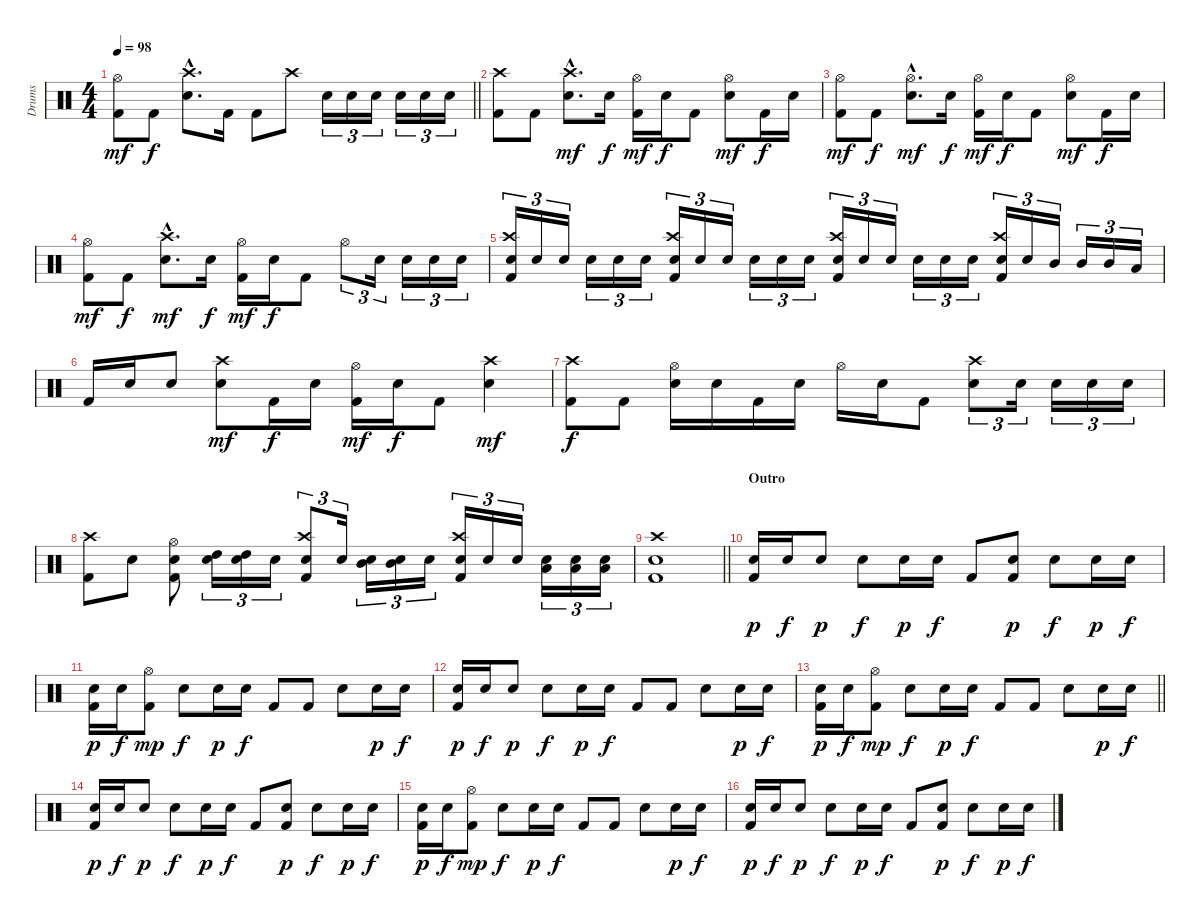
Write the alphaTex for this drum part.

\track ("Drums" "Drums") {instrument percussion}
\staff {score}
\articulation defaults
\ts (4 4)
\tempo 98
\clef neutral
\barLineRight lightlight
\ks c
("Hi-Hat (open)" "Kick (hit) 2").8{dy mf} "Kick (hit) 2".8{dy f} ("Crash high (hit)"{hac} "Snare (hit) 2"{hac}).8{d} "Kick (hit) 2".16 "Kick (hit) 2".8 "Crash high (hit)".8 "Snare (hit) 2".16{tu (3 2)} "Snare (hit) 2".16{tu (3 2)} "Snare (hit) 2".16{tu (3 2)} "Snare (hit) 2".16{tu (3 2)} "Snare (hit) 2".16{tu (3 2)} "Snare (hit) 2".16{tu (3 2)} |
("Crash high (hit)" "Kick (hit) 2").8 "Kick (hit) 2".8 ("Crash high (hit)"{hac} "Snare (hit) 2"{hac}).8{d dy mf} "Snare (hit) 2".16{dy f} ("Hi-Hat (open)" "Kick (hit) 2").16{dy mf} "Snare (hit) 2".16{dy f} "Kick (hit) 2".8 ("Hi-Hat (open)" "Snare (hit) 2").8{dy mf} "Kick (hit) 2".16{dy f} "Snare (hit) 2".16 |
("Hi-Hat (open)" "Kick (hit) 2").8{dy mf} "Kick (hit) 2".8{dy f} ("Hi-Hat (open)"{hac} "Snare (hit) 2"{hac}).8{d dy mf} "Snare (hit) 2".16{dy f} ("Hi-Hat (open)" "Kick (hit) 2").16{dy mf} "Snare (hit) 2".16{dy f} "Kick (hit) 2".8 ("Hi-Hat (open)" "Snare (hit) 2").8{dy mf} "Kick (hit) 2".16{dy f} "Snare (hit) 2".16 |
("Hi-Hat (open)" "Kick (hit) 2").8{dy mf} "Kick (hit) 2".8{dy f} ("Crash high (hit)"{hac} "Snare (hit) 2"{hac}).8{d dy mf} "Snare (hit) 2".16{dy f} ("Hi-Hat (open)" "Kick (hit) 2").16{dy mf} "Snare (hit) 2".16{dy f} "Kick (hit) 2".8 "Hi-Hat (open)".8{tu (3 2)} "Snare (hit) 2".16{tu (3 2)} "Snare (hit) 2".16{tu (3 2)} "Snare (hit) 2".16{tu (3 2)} "Snare (hit) 2".16{tu (3 2)} |
("Crash high (hit)" "Snare (hit) 2" "Kick (hit) 2").16{tu (3 2)} "Snare (hit) 2".16{tu (3 2)} "Snare (hit) 2".16{tu (3 2)} "Snare (hit) 2".16{tu (3 2)} "Snare (hit) 2".16{tu (3 2)} "Snare (hit) 2".16{tu (3 2)} ("Crash high (hit)" "Snare (hit) 2" "Kick (hit) 2").16{tu (3 2)} "Snare (hit) 2".16{tu (3 2)} "Snare (hit) 2".16{tu (3 2)} "Snare (hit) 2".16{tu (3 2)} "Snare (hit) 2".16{tu (3 2)} "Snare (hit) 2".16{tu (3 2)} ("Crash high (hit)" "Snare (hit) 2" "Kick (hit) 2").16{tu (3 2)} "Snare (hit) 2".16{tu (3 2)} "Snare (hit) 2".16{tu (3 2)} "Snare (hit) 2".16{tu (3 2)} "Snare (hit) 2".16{tu (3 2)} "Snare (hit) 2".16{tu (3 2)} ("Crash high (hit)" "Snare (hit) 2" "Kick (hit) 2").16{tu (3 2)} "Snare (hit) 2".16{tu (3 2)} "Mid Tom (hit)".16{tu (3 2)} "Mid Tom (hit)".16{tu (3 2)} "Mid Tom (hit)".16{tu (3 2)} "Low Tom (hit)".16{tu (3 2)} |
"Kick (hit) 2".16 "Snare (hit) 2".16 "Snare (hit) 2".8 ("Crash high (hit)" "Snare (hit) 2").8{dy mf} "Kick (hit) 2".16{dy f} "Snare (hit) 2".16 ("Hi-Hat (open)" "Kick (hit) 2").16{dy mf} "Snare (hit) 2".16{dy f} "Kick (hit) 2".8 ("Crash high (hit)" "Snare (hit) 2").4{dy mf} |
("Crash high (hit)" "Kick (hit) 2").8{dy f} "Kick (hit) 2".8 ("Hi-Hat (open)" "Snare (hit) 2").16 "Snare (hit) 2".16 "Kick (hit) 2".16 "Snare (hit) 2".16 "Hi-Hat (open)".16 "Snare (hit) 2".16 "Kick (hit) 2".8 ("Crash high (hit)" "Snare (hit) 2").8{tu (3 2)} "Snare (hit) 2".16{tu (3 2)} "Snare (hit) 2".16{tu (3 2)} "Snare (hit) 2".16{tu (3 2)} "Snare (hit) 2".16{tu (3 2)} |
("Crash high (hit)" "Kick (hit) 2").8 "Snare (hit) 2".8 ("Hi-Hat (open)" "Snare (hit) 2" "Kick (hit) 2").8 ("Snare (hit) 2" "High Tom (hit)").16{tu (3 2)} ("Snare (hit) 2" "High Tom (hit)").16{tu (3 2)} "Snare (hit) 2".16{tu (3 2)} ("Crash high (hit)" "Snare (hit) 2" "Kick (hit) 2").8{tu (3 2)} "Snare (hit) 2".16{tu (3 2)} ("Snare (hit) 2" "Mid Tom (hit)").16{tu (3 2)} ("Snare (hit) 2" "Mid Tom (hit)").16{tu (3 2)} "Snare (hit) 2".16{tu (3 2)} ("Crash high (hit)" "Snare (hit) 2" "Kick (hit) 2").16{tu (3 2)} "Snare (hit) 2".16{tu (3 2)} "Snare (hit) 2".16{tu (3 2)} ("Snare (hit) 2" "Low Tom (hit)").16{tu (3 2)} ("Snare (hit) 2" "Low Tom (hit)").16{tu (3 2)} ("Snare (hit) 2" "Low Tom (hit)").16{tu (3 2)} |
\barLineRight lightlight
("Crash high (hit)" "Snare (hit) 2" "Kick (hit) 2").1 |
\section ("" "Outro")
("Electric Snare (hit)" "Kick (hit) 2").16{dy p} "Snare (hit) 2".16{dy f} "Electric Snare (hit)".8{dy p} "Snare (hit) 2".8{dy f} "Electric Snare (hit)".16{dy p} "Snare (hit) 2".16{dy f} "Kick (hit) 2".8 ("Electric Snare (hit)" "Kick (hit) 2").8{dy p} "Snare (hit) 2".8{dy f} "Electric Snare (hit)".16{dy p} "Snare (hit) 2".16{dy f} |
("Electric Snare (hit)" "Kick (hit) 2").16{dy p} "Snare (hit) 2".16{dy f} ("Hi-Hat (open)" "Kick (hit) 2").8{dy mp} "Snare (hit) 2".8{dy f} "Electric Snare (hit)".16{dy p} "Snare (hit) 2".16{dy f} "Kick (hit) 2".8 "Kick (hit) 2".8 "Snare (hit) 2".8 "Electric Snare (hit)".16{dy p} "Snare (hit) 2".16{dy f} |
("Electric Snare (hit)" "Kick (hit) 2").16{dy p} "Snare (hit) 2".16{dy f} "Electric Snare (hit)".8{dy p} "Snare (hit) 2".8{dy f} "Electric Snare (hit)".16{dy p} "Snare (hit) 2".16{dy f} "Kick (hit) 2".8 "Kick (hit) 2".8 "Snare (hit) 2".8 "Electric Snare (hit)".16{dy p} "Snare (hit) 2".16{dy f} |
\barLineRight lightlight
("Electric Snare (hit)" "Kick (hit) 2").16{dy p} "Snare (hit) 2".16{dy f} ("Hi-Hat (open)" "Kick (hit) 2").8{dy mp} "Snare (hit) 2".8{dy f} "Electric Snare (hit)".16{dy p} "Snare (hit) 2".16{dy f} "Kick (hit) 2".8 "Kick (hit) 2".8 "Snare (hit) 2".8 "Electric Snare (hit)".16{dy p} "Snare (hit) 2".16{dy f} |
("Electric Snare (hit)" "Kick (hit) 2").16{dy p} "Snare (hit) 2".16{dy f} "Electric Snare (hit)".8{dy p} "Snare (hit) 2".8{dy f} "Electric Snare (hit)".16{dy p} "Snare (hit) 2".16{dy f} "Kick (hit) 2".8 ("Electric Snare (hit)" "Kick (hit) 2").8{dy p} "Snare (hit) 2".8{dy f} "Electric Snare (hit)".16{dy p} "Snare (hit) 2".16{dy f} |
("Electric Snare (hit)" "Kick (hit) 2").16{dy p} "Snare (hit) 2".16{dy f} ("Hi-Hat (open)" "Kick (hit) 2").8{dy mp} "Snare (hit) 2".8{dy f} "Electric Snare (hit)".16{dy p} "Snare (hit) 2".16{dy f} "Kick (hit) 2".8 "Kick (hit) 2".8 "Snare (hit) 2".8 "Electric Snare (hit)".16{dy p} "Snare (hit) 2".16{dy f} |
("Electric Snare (hit)" "Kick (hit) 2").16{dy p} "Snare (hit) 2".16{dy f} "Electric Snare (hit)".8{dy p} "Snare (hit) 2".8{dy f} "Electric Snare (hit)".16{dy p} "Snare (hit) 2".16{dy f} "Kick (hit) 2".8 ("Electric Snare (hit)" "Kick (hit) 2").8{dy p} "Snare (hit) 2".8{dy f} "Electric Snare (hit)".16{dy p} "Snare (hit) 2".16{dy f}
